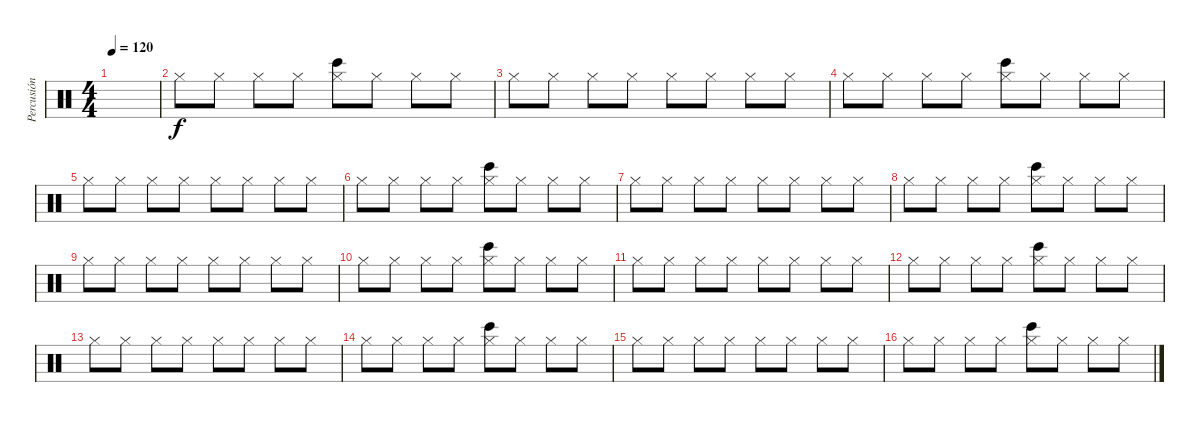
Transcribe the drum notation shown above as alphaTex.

\track ("Percusión" "Percusión") {instrument percussion}
\staff {score}
\articulation defaults
\ts (4 4)
\tempo 120
\clef neutral
\ks c
|
"Hi-Hat (closed)".8 "Hi-Hat (closed)".8 "Hi-Hat (closed)".8 "Hi-Hat (closed)".8 ("Hi-Hat (closed)" "Bongo High (hit)").8 "Hi-Hat (closed)".8 "Hi-Hat (closed)".8 "Hi-Hat (closed)".8 |
"Hi-Hat (closed)".8 "Hi-Hat (closed)".8 "Hi-Hat (closed)".8 "Hi-Hat (closed)".8 "Hi-Hat (closed)".8 "Hi-Hat (closed)".8 "Hi-Hat (closed)".8 "Hi-Hat (closed)".8 |
"Hi-Hat (closed)".8 "Hi-Hat (closed)".8 "Hi-Hat (closed)".8 "Hi-Hat (closed)".8 ("Hi-Hat (closed)" "Bongo High (hit)").8 "Hi-Hat (closed)".8 "Hi-Hat (closed)".8 "Hi-Hat (closed)".8 |
"Hi-Hat (closed)".8 "Hi-Hat (closed)".8 "Hi-Hat (closed)".8 "Hi-Hat (closed)".8 "Hi-Hat (closed)".8 "Hi-Hat (closed)".8 "Hi-Hat (closed)".8 "Hi-Hat (closed)".8 |
"Hi-Hat (closed)".8 "Hi-Hat (closed)".8 "Hi-Hat (closed)".8 "Hi-Hat (closed)".8 ("Hi-Hat (closed)" "Bongo High (hit)").8 "Hi-Hat (closed)".8 "Hi-Hat (closed)".8 "Hi-Hat (closed)".8 |
"Hi-Hat (closed)".8 "Hi-Hat (closed)".8 "Hi-Hat (closed)".8 "Hi-Hat (closed)".8 "Hi-Hat (closed)".8 "Hi-Hat (closed)".8 "Hi-Hat (closed)".8 "Hi-Hat (closed)".8 |
"Hi-Hat (closed)".8 "Hi-Hat (closed)".8 "Hi-Hat (closed)".8 "Hi-Hat (closed)".8 ("Hi-Hat (closed)" "Bongo High (hit)").8 "Hi-Hat (closed)".8 "Hi-Hat (closed)".8 "Hi-Hat (closed)".8 |
"Hi-Hat (closed)".8 "Hi-Hat (closed)".8 "Hi-Hat (closed)".8 "Hi-Hat (closed)".8 "Hi-Hat (closed)".8 "Hi-Hat (closed)".8 "Hi-Hat (closed)".8 "Hi-Hat (closed)".8 |
"Hi-Hat (closed)".8 "Hi-Hat (closed)".8 "Hi-Hat (closed)".8 "Hi-Hat (closed)".8 ("Hi-Hat (closed)" "Bongo High (hit)").8 "Hi-Hat (closed)".8 "Hi-Hat (closed)".8 "Hi-Hat (closed)".8 |
"Hi-Hat (closed)".8 "Hi-Hat (closed)".8 "Hi-Hat (closed)".8 "Hi-Hat (closed)".8 "Hi-Hat (closed)".8 "Hi-Hat (closed)".8 "Hi-Hat (closed)".8 "Hi-Hat (closed)".8 |
"Hi-Hat (closed)".8 "Hi-Hat (closed)".8 "Hi-Hat (closed)".8 "Hi-Hat (closed)".8 ("Hi-Hat (closed)" "Bongo High (hit)").8 "Hi-Hat (closed)".8 "Hi-Hat (closed)".8 "Hi-Hat (closed)".8 |
"Hi-Hat (closed)".8 "Hi-Hat (closed)".8 "Hi-Hat (closed)".8 "Hi-Hat (closed)".8 "Hi-Hat (closed)".8 "Hi-Hat (closed)".8 "Hi-Hat (closed)".8 "Hi-Hat (closed)".8 |
"Hi-Hat (closed)".8 "Hi-Hat (closed)".8 "Hi-Hat (closed)".8 "Hi-Hat (closed)".8 ("Hi-Hat (closed)" "Bongo High (hit)").8 "Hi-Hat (closed)".8 "Hi-Hat (closed)".8 "Hi-Hat (closed)".8 |
"Hi-Hat (closed)".8 "Hi-Hat (closed)".8 "Hi-Hat (closed)".8 "Hi-Hat (closed)".8 "Hi-Hat (closed)".8 "Hi-Hat (closed)".8 "Hi-Hat (closed)".8 "Hi-Hat (closed)".8 |
"Hi-Hat (closed)".8 "Hi-Hat (closed)".8 "Hi-Hat (closed)".8 "Hi-Hat (closed)".8 ("Hi-Hat (closed)" "Bongo High (hit)").8 "Hi-Hat (closed)".8 "Hi-Hat (closed)".8 "Hi-Hat (closed)".8
